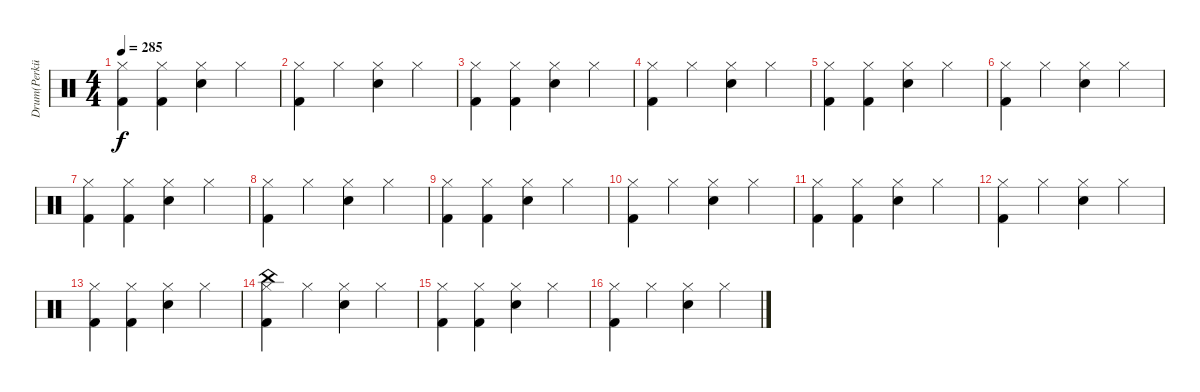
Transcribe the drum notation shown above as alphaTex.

\track ("Drum(Perküsyon)" "Drum(Perkü") {instrument percussion}
\staff {score}
\articulation defaults
\ts (4 4)
\tempo 285
\clef neutral
\ks c
("Hi-Hat (closed)" "Kick (hit) 2").4{dy f} ("Hi-Hat (closed)" "Kick (hit) 2").4 ("Hi-Hat (closed)" "Electric Snare (hit)").4 "Hi-Hat (closed)".4 |
("Hi-Hat (closed)" "Kick (hit) 2").4 "Hi-Hat (closed)".4 ("Hi-Hat (closed)" "Electric Snare (hit)").4 "Hi-Hat (closed)".4 |
("Hi-Hat (closed)" "Kick (hit) 2").4 ("Hi-Hat (closed)" "Kick (hit) 2").4 ("Hi-Hat (closed)" "Electric Snare (hit)").4 "Hi-Hat (closed)".4 |
("Hi-Hat (closed)" "Kick (hit) 2").4 "Hi-Hat (closed)".4 ("Hi-Hat (closed)" "Electric Snare (hit)").4 "Hi-Hat (closed)".4 |
("Hi-Hat (closed)" "Kick (hit) 2").4 ("Hi-Hat (closed)" "Kick (hit) 2").4 ("Hi-Hat (closed)" "Electric Snare (hit)").4 "Hi-Hat (closed)".4 |
("Hi-Hat (closed)" "Kick (hit) 2").4 "Hi-Hat (closed)".4 ("Hi-Hat (closed)" "Electric Snare (hit)").4 "Hi-Hat (closed)".4 |
("Hi-Hat (closed)" "Kick (hit) 2").4 ("Hi-Hat (closed)" "Kick (hit) 2").4 ("Hi-Hat (closed)" "Electric Snare (hit)").4 "Hi-Hat (closed)".4 |
("Hi-Hat (closed)" "Kick (hit) 2").4 "Hi-Hat (closed)".4 ("Hi-Hat (closed)" "Electric Snare (hit)").4 "Hi-Hat (closed)".4 |
("Hi-Hat (closed)" "Kick (hit) 2").4 ("Hi-Hat (closed)" "Kick (hit) 2").4 ("Hi-Hat (closed)" "Electric Snare (hit)").4 "Hi-Hat (closed)".4 |
("Hi-Hat (closed)" "Kick (hit) 2").4 "Hi-Hat (closed)".4 ("Hi-Hat (closed)" "Electric Snare (hit)").4 "Hi-Hat (closed)".4 |
("Hi-Hat (closed)" "Kick (hit) 2").4 ("Hi-Hat (closed)" "Kick (hit) 2").4 ("Hi-Hat (closed)" "Electric Snare (hit)").4 "Hi-Hat (closed)".4 |
("Hi-Hat (closed)" "Kick (hit) 2").4 "Hi-Hat (closed)".4 ("Hi-Hat (closed)" "Electric Snare (hit)").4 "Hi-Hat (closed)".4 |
("Hi-Hat (closed)" "Kick (hit) 2").4 ("Hi-Hat (closed)" "Kick (hit) 2").4 ("Hi-Hat (closed)" "Electric Snare (hit)").4 "Hi-Hat (closed)".4 |
("Hi-Hat (closed)" "Kick (hit) 2" "China (hit)").4 "Hi-Hat (closed)".4 ("Hi-Hat (closed)" "Electric Snare (hit)").4 "Hi-Hat (closed)".4 |
("Hi-Hat (closed)" "Kick (hit) 2").4 ("Hi-Hat (closed)" "Kick (hit) 2").4 ("Hi-Hat (closed)" "Electric Snare (hit)").4 "Hi-Hat (closed)".4 |
("Hi-Hat (closed)" "Kick (hit) 2").4 "Hi-Hat (closed)".4 ("Hi-Hat (closed)" "Electric Snare (hit)").4 "Hi-Hat (closed)".4
